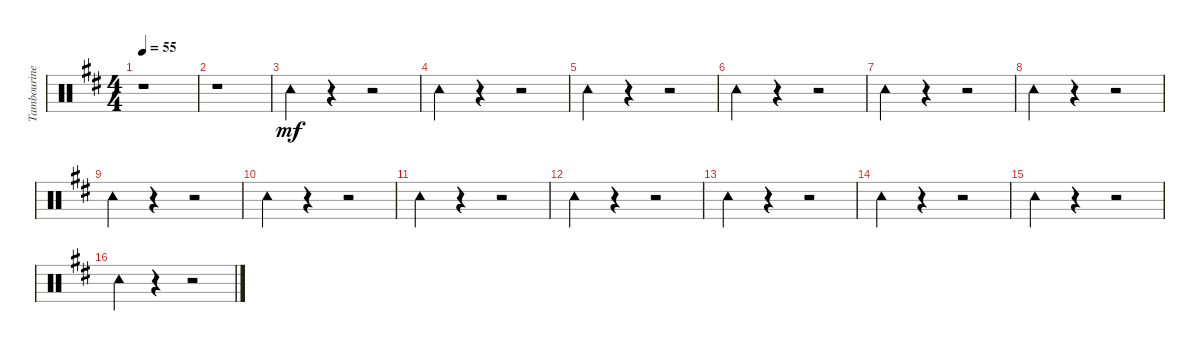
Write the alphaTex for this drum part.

\track ("Tambourine" "Tambourine") {instrument percussion}
\staff {score}
\articulation defaults
\ts (4 4)
\tempo 55
\clef neutral
\ks d
r.1{dy mf} |
r.1 |
"Tambourine (hit)".4 r.4 r.2 |
"Tambourine (hit)".4 r.4 r.2 |
"Tambourine (hit)".4 r.4 r.2 |
"Tambourine (hit)".4 r.4 r.2 |
"Tambourine (hit)".4 r.4 r.2 |
"Tambourine (hit)".4 r.4 r.2 |
"Tambourine (hit)".4 r.4 r.2 |
"Tambourine (hit)".4 r.4 r.2 |
"Tambourine (hit)".4 r.4 r.2 |
"Tambourine (hit)".4 r.4 r.2 |
"Tambourine (hit)".4 r.4 r.2 |
"Tambourine (hit)".4 r.4 r.2 |
"Tambourine (hit)".4 r.4 r.2 |
"Tambourine (hit)".4 r.4 r.2
